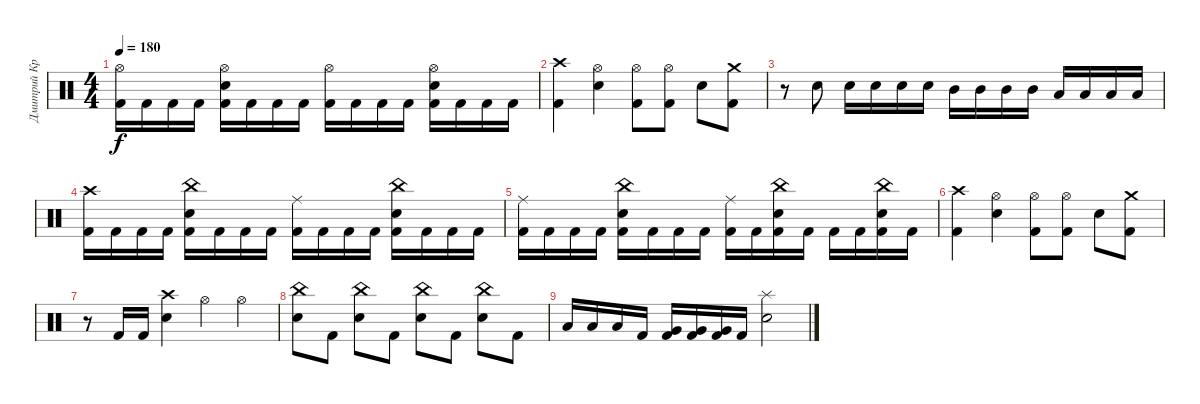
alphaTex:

\track ("Дмитрий Кривенков" "Дмитрий Кр") {instrument percussion}
\staff {score}
\articulation defaults
\ts (4 4)
\tempo 180
\clef neutral
\ks c
("Hi-Hat (open)" "Kick (hit) 2").16{dy f} "Kick (hit) 2".16 "Kick (hit) 2".16 "Kick (hit) 2".16 ("Hi-Hat (open)" "Electric Snare (hit)" "Kick (hit) 2").16 "Kick (hit) 2".16 "Kick (hit) 2".16 "Kick (hit) 2".16 ("Hi-Hat (open)" "Kick (hit) 2").16 "Kick (hit) 2".16 "Kick (hit) 2".16 "Kick (hit) 2".16 ("Hi-Hat (open)" "Electric Snare (hit)" "Kick (hit) 2").16 "Kick (hit) 2".16 "Kick (hit) 2".16 "Kick (hit) 2".16 |
("Crash high (hit)" "Kick (hit) 2").4 ("Hi-Hat (open)" "Electric Snare (hit)").4 ("Hi-Hat (open)" "Kick (hit) 2").8 ("Hi-Hat (open)" "Kick (hit) 2").8 "Electric Snare (hit)".8 ("Crash medium (hit)" "Kick (hit) 2").8 |
r.8 "Electric Snare (hit)".8 "Electric Snare (hit)".16 "Electric Snare (hit)".16 "Electric Snare (hit)".16 "Electric Snare (hit)".16 "Mid Tom (hit)".16 "Mid Tom (hit)".16 "Mid Tom (hit)".16 "Mid Tom (hit)".16 "Low Tom (hit)".16 "Low Tom (hit)".16 "Low Tom (hit)".16 "Low Tom (hit)".16 |
("Crash high (hit)" "Kick (hit) 2").16 "Kick (hit) 2".16 "Kick (hit) 2".16 "Kick (hit) 2".16 ("China (hit)" "Electric Snare (hit)" "Kick (hit) 2").16 "Kick (hit) 2".16 "Kick (hit) 2".16 "Kick (hit) 2".16 ("Ride (middle)" "Kick (hit) 2").16 "Kick (hit) 2".16 "Kick (hit) 2".16 "Kick (hit) 2".16 ("China (hit)" "Electric Snare (hit)" "Kick (hit) 2").16 "Kick (hit) 2".16 "Kick (hit) 2".16 "Kick (hit) 2".16 |
("Ride (middle)" "Kick (hit) 2").16 "Kick (hit) 2".16 "Kick (hit) 2".16 "Kick (hit) 2".16 ("China (hit)" "Electric Snare (hit)" "Kick (hit) 2").16 "Kick (hit) 2".16 "Kick (hit) 2".16 "Kick (hit) 2".16 ("Ride (middle)" "Kick (hit) 2").16 "Kick (hit) 2".16 ("China (hit)" "Electric Snare (hit)" "Kick (hit) 2").16 "Kick (hit) 2".16 "Kick (hit) 2".16 "Kick (hit) 2".16 ("China (hit)" "Electric Snare (hit)" "Kick (hit) 2").16 "Kick (hit) 2".16 |
("Crash high (hit)" "Kick (hit) 2").4 ("Hi-Hat (open)" "Electric Snare (hit)").4 ("Hi-Hat (open)" "Kick (hit) 2").8 ("Hi-Hat (open)" "Kick (hit) 2").8 "Electric Snare (hit)".8 ("Crash medium (hit)" "Kick (hit) 2").8 |
r.8 "Kick (hit) 2".16 "Kick (hit) 2".16 ("Crash high (hit)" "Electric Snare (hit)").4 "Hi-Hat (open)".4 "Hi-Hat (open)".4 |
("China (hit)" "Electric Snare (hit)").8 "Kick (hit) 2".8 ("China (hit)" "Electric Snare (hit)").8 "Kick (hit) 2".8 ("China (hit)" "Electric Snare (hit)").8 "Kick (hit) 2".8 ("China (hit)" "Electric Snare (hit)").8 "Kick (hit) 2".8 |
"Low Tom (hit)".16 "Low Tom (hit)".16 "Low Tom (hit)".16 "Kick (hit) 2".16 ("Very Low Tom (hit)" "Kick (hit) 2").16 ("Very Low Tom (hit)" "Kick (hit) 2").16 ("Very Low Tom (hit)" "Kick (hit) 2").16 "Kick (hit) 2".16 ("Splash (hit)" "Electric Snare (hit)").2
